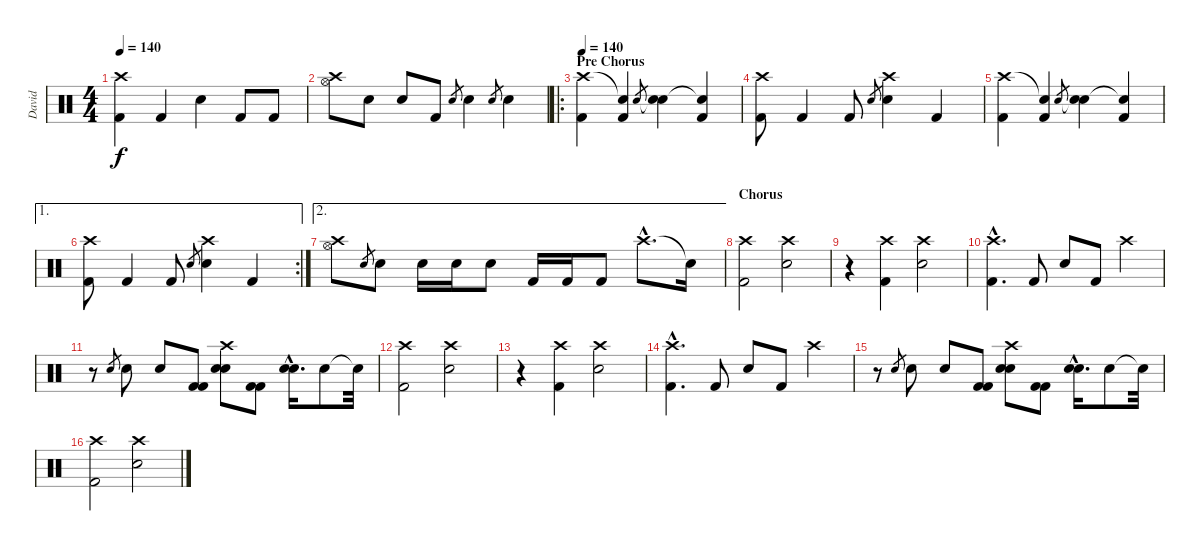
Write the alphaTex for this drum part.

\track ("David" "David") {instrument percussion}
\staff {score}
\articulation defaults
\ts (4 4)
\tempo 140
\clef neutral
\ks c
("Kick (hit) 2" "Crash high (hit)").4{dy f} "Kick (hit) 2".4 "Electric Snare (hit)".4 "Kick (hit) 2".8 "Kick (hit) 2".8 |
("Crash high (hit)" "Hi-Hat (open)").8 "Electric Snare (hit)".8 "Electric Snare (hit)".8 "Kick (hit) 2".8 "Electric Snare (hit)".8{gr} "Electric Snare (hit)".4 "Electric Snare (hit)".8{gr} "Electric Snare (hit)".4 |
\ro
\section ("" "Pre Chorus")
\tempo 140
("Crash high (hit)" "Kick (hit) 2").4 ("Snare (hit)"{t} "Kick (hit) 2").4 "Snare (hit) 2".8{gr} ("Snare (hit)"{t} "Electric Snare (hit)").4 ("Snare (hit)"{t} "Kick (hit) 2").4 |
("Crash high (hit)" "Kick (hit) 2").8 "Kick (hit) 2".4 "Kick (hit) 2".8 "Snare (hit) 2".8{gr} ("Crash high (hit)" "Electric Snare (hit)").4 "Kick (hit) 2".4 |
("Crash high (hit)" "Kick (hit) 2").4 ("Snare (hit)"{t} "Kick (hit) 2").4 "Snare (hit) 2".8{gr} ("Snare (hit)"{t} "Electric Snare (hit)").4 ("Snare (hit)"{t} "Kick (hit) 2").4 |
\ae 1
\rc 2
("Crash high (hit)" "Kick (hit) 2").8 "Kick (hit) 2".4 "Kick (hit) 2".8 "Snare (hit) 2".8{gr} ("Crash high (hit)" "Electric Snare (hit)").4 "Kick (hit) 2".4 |
\ae 2
("Crash high (hit)" "Hi-Hat (open)").8 "Electric Snare (hit)".8{gr} "Electric Snare (hit)".8 "Electric Snare (hit)".16 "Electric Snare (hit)".16 "Electric Snare (hit)".8 "Kick (hit) 2".16 "Kick (hit) 2".16 "Kick (hit) 2".8 "Crash high (hit)"{hac}.8{d} "Snare (hit)"{t}.16 |
\section ("" "Chorus")
("Crash high (hit)" "Kick (hit) 2").2 ("Crash high (hit)" "Electric Snare (hit)").2 |
r.4 ("Crash high (hit)" "Kick (hit) 2").4 ("Crash high (hit)" "Electric Snare (hit)").2 |
("Crash high (hit)"{hac} "Kick (hit) 2"{hac}).4{d} "Kick (hit) 2".8 "Electric Snare (hit)".8 "Kick (hit) 2".8 "Crash high (hit)".4 |
r.8 "Electric Snare (hit)".8{gr} "Electric Snare (hit)".8 "Electric Snare (hit)".8 ("Kick (hit) 2" "Kick (hit) 2").8 ("Crash high (hit)" "Electric Snare (hit)" "Electric Snare (hit)").8 ("Kick (hit) 2" "Kick (hit) 2").8 ("Electric Snare (hit)"{hac} "Electric Snare (hit)"{hac}).16{d} "Electric Snare (hit)".8 "Snare (hit)"{t}.32 |
("Crash high (hit)" "Kick (hit) 2").2 ("Crash high (hit)" "Electric Snare (hit)").2 |
r.4 ("Crash high (hit)" "Kick (hit) 2").4 ("Crash high (hit)" "Electric Snare (hit)").2 |
("Crash high (hit)"{hac} "Kick (hit) 2"{hac}).4{d} "Kick (hit) 2".8 "Electric Snare (hit)".8 "Kick (hit) 2".8 "Crash high (hit)".4 |
r.8 "Electric Snare (hit)".8{gr} "Electric Snare (hit)".8 "Electric Snare (hit)".8 ("Kick (hit) 2" "Kick (hit) 2").8 ("Crash high (hit)" "Electric Snare (hit)" "Electric Snare (hit)").8 ("Kick (hit) 2" "Kick (hit) 2").8 ("Electric Snare (hit)"{hac} "Electric Snare (hit)"{hac}).16{d} "Electric Snare (hit)".8 "Snare (hit)"{t}.32 |
("Crash high (hit)" "Kick (hit) 2").2 ("Crash high (hit)" "Electric Snare (hit)").2
